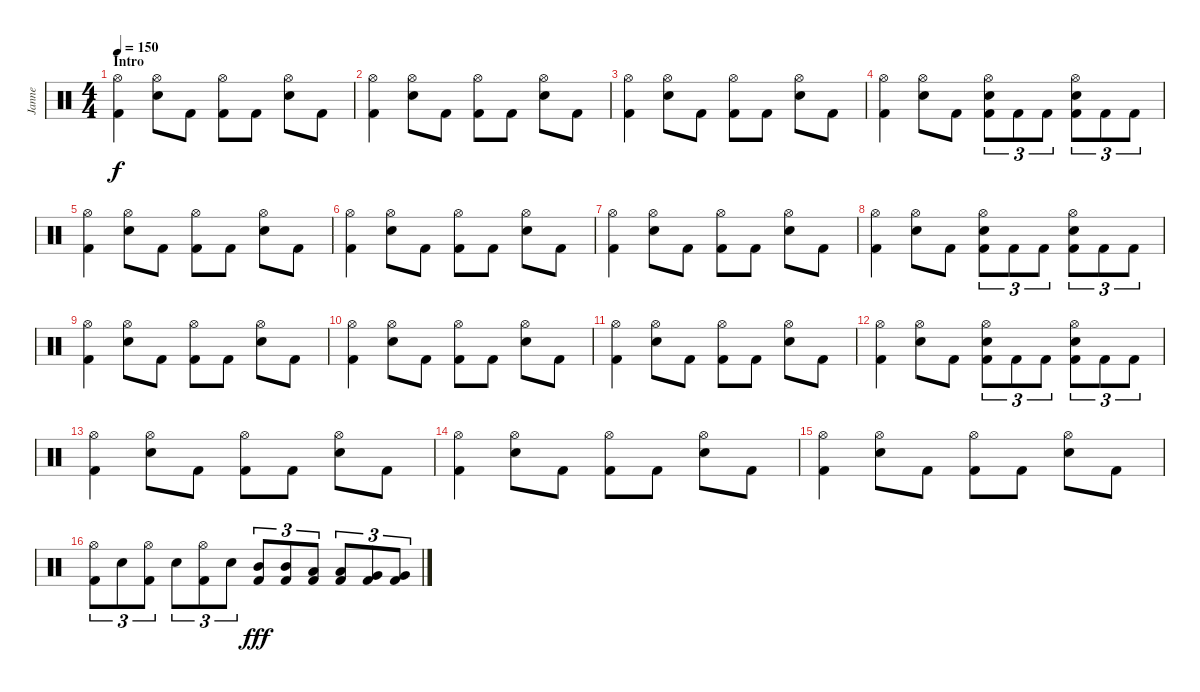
\track ("Janne" "Janne") {instrument percussion}
\staff {score}
\articulation defaults
\ts (4 4)
\section ("" "Intro")
\tempo 150
\clef neutral
\ks c
("Hi-Hat (open)" "Kick (hit) 2").4{dy f} ("Hi-Hat (open)" "Electric Snare (hit)").8 "Kick (hit) 2".8 ("Hi-Hat (open)" "Kick (hit) 2").8 "Kick (hit) 2".8 ("Hi-Hat (open)" "Electric Snare (hit)").8 "Kick (hit) 2".8 |
("Hi-Hat (open)" "Kick (hit) 2").4 ("Hi-Hat (open)" "Electric Snare (hit)").8 "Kick (hit) 2".8 ("Hi-Hat (open)" "Kick (hit) 2").8 "Kick (hit) 2".8 ("Hi-Hat (open)" "Electric Snare (hit)").8 "Kick (hit) 2".8 |
("Hi-Hat (open)" "Kick (hit) 2").4 ("Hi-Hat (open)" "Electric Snare (hit)").8 "Kick (hit) 2".8 ("Hi-Hat (open)" "Kick (hit) 2").8 "Kick (hit) 2".8 ("Hi-Hat (open)" "Electric Snare (hit)").8 "Kick (hit) 2".8 |
("Hi-Hat (open)" "Kick (hit) 2").4 ("Hi-Hat (open)" "Electric Snare (hit)").8 "Kick (hit) 2".8 ("Hi-Hat (open)" "Electric Snare (hit)" "Kick (hit) 2").8{tu (3 2)} "Kick (hit) 2".8{tu (3 2)} "Kick (hit) 2".8{tu (3 2)} ("Hi-Hat (open)" "Electric Snare (hit)" "Kick (hit) 2").8{tu (3 2)} "Kick (hit) 2".8{tu (3 2)} "Kick (hit) 2".8{tu (3 2)} |
("Hi-Hat (open)" "Kick (hit) 2").4 ("Hi-Hat (open)" "Electric Snare (hit)").8 "Kick (hit) 2".8 ("Hi-Hat (open)" "Kick (hit) 2").8 "Kick (hit) 2".8 ("Hi-Hat (open)" "Electric Snare (hit)").8 "Kick (hit) 2".8 |
("Hi-Hat (open)" "Kick (hit) 2").4 ("Hi-Hat (open)" "Electric Snare (hit)").8 "Kick (hit) 2".8 ("Hi-Hat (open)" "Kick (hit) 2").8 "Kick (hit) 2".8 ("Hi-Hat (open)" "Electric Snare (hit)").8 "Kick (hit) 2".8 |
("Hi-Hat (open)" "Kick (hit) 2").4 ("Hi-Hat (open)" "Electric Snare (hit)").8 "Kick (hit) 2".8 ("Hi-Hat (open)" "Kick (hit) 2").8 "Kick (hit) 2".8 ("Hi-Hat (open)" "Electric Snare (hit)").8 "Kick (hit) 2".8 |
("Hi-Hat (open)" "Kick (hit) 2").4 ("Hi-Hat (open)" "Electric Snare (hit)").8 "Kick (hit) 2".8 ("Hi-Hat (open)" "Electric Snare (hit)" "Kick (hit) 2").8{tu (3 2)} "Kick (hit) 2".8{tu (3 2)} "Kick (hit) 2".8{tu (3 2)} ("Hi-Hat (open)" "Electric Snare (hit)" "Kick (hit) 2").8{tu (3 2)} "Kick (hit) 2".8{tu (3 2)} "Kick (hit) 2".8{tu (3 2)} |
("Hi-Hat (open)" "Kick (hit) 2").4 ("Hi-Hat (open)" "Electric Snare (hit)").8 "Kick (hit) 2".8 ("Hi-Hat (open)" "Kick (hit) 2").8 "Kick (hit) 2".8 ("Hi-Hat (open)" "Electric Snare (hit)").8 "Kick (hit) 2".8 |
("Hi-Hat (open)" "Kick (hit) 2").4 ("Hi-Hat (open)" "Electric Snare (hit)").8 "Kick (hit) 2".8 ("Hi-Hat (open)" "Kick (hit) 2").8 "Kick (hit) 2".8 ("Hi-Hat (open)" "Electric Snare (hit)").8 "Kick (hit) 2".8 |
("Hi-Hat (open)" "Kick (hit) 2").4 ("Hi-Hat (open)" "Electric Snare (hit)").8 "Kick (hit) 2".8 ("Hi-Hat (open)" "Kick (hit) 2").8 "Kick (hit) 2".8 ("Hi-Hat (open)" "Electric Snare (hit)").8 "Kick (hit) 2".8 |
("Hi-Hat (open)" "Kick (hit) 2").4 ("Hi-Hat (open)" "Electric Snare (hit)").8 "Kick (hit) 2".8 ("Hi-Hat (open)" "Electric Snare (hit)" "Kick (hit) 2").8{tu (3 2)} "Kick (hit) 2".8{tu (3 2)} "Kick (hit) 2".8{tu (3 2)} ("Hi-Hat (open)" "Electric Snare (hit)" "Kick (hit) 2").8{tu (3 2)} "Kick (hit) 2".8{tu (3 2)} "Kick (hit) 2".8{tu (3 2)} |
("Hi-Hat (open)" "Kick (hit) 2").4 ("Hi-Hat (open)" "Electric Snare (hit)").8 "Kick (hit) 2".8 ("Hi-Hat (open)" "Kick (hit) 2").8 "Kick (hit) 2".8 ("Hi-Hat (open)" "Electric Snare (hit)").8 "Kick (hit) 2".8 |
("Hi-Hat (open)" "Kick (hit) 2").4 ("Hi-Hat (open)" "Electric Snare (hit)").8 "Kick (hit) 2".8 ("Hi-Hat (open)" "Kick (hit) 2").8 "Kick (hit) 2".8 ("Hi-Hat (open)" "Electric Snare (hit)").8 "Kick (hit) 2".8 |
("Hi-Hat (open)" "Kick (hit) 2").4 ("Hi-Hat (open)" "Electric Snare (hit)").8 "Kick (hit) 2".8 ("Hi-Hat (open)" "Kick (hit) 2").8 "Kick (hit) 2".8 ("Hi-Hat (open)" "Electric Snare (hit)").8 "Kick (hit) 2".8 |
("Hi-Hat (open)" "Kick (hit) 2").8{tu (3 2)} "Electric Snare (hit)".8{tu (3 2)} ("Hi-Hat (open)" "Kick (hit) 2").8{tu (3 2)} "Electric Snare (hit)".8{tu (3 2)} ("Hi-Hat (open)" "Kick (hit) 2").8{tu (3 2)} "Electric Snare (hit)".8{tu (3 2)} ("Mid Tom (hit)" "Kick (hit) 2").8{tu (3 2) dy fff} ("Mid Tom (hit)" "Kick (hit) 2").8{tu (3 2)} ("Low Tom (hit)" "Kick (hit) 2").8{tu (3 2)} ("Low Tom (hit)" "Kick (hit) 2").8{tu (3 2)} ("Very Low Tom (hit)" "Kick (hit) 2").8{tu (3 2)} ("Very Low Tom (hit)" "Kick (hit) 2").8{tu (3 2)}
